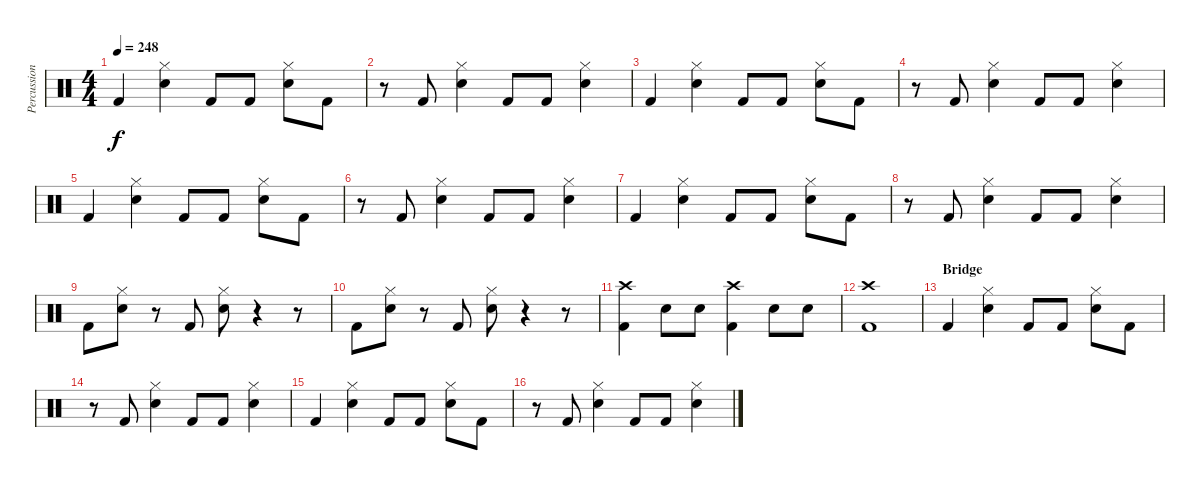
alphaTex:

\track ("Percussion" "Percussion") {instrument percussion}
\staff {score}
\articulation defaults
\ts (4 4)
\tempo 248
\clef neutral
\ks c "Kick (hit) 2".4{dy f}
("Hi-Hat (closed)" "Snare (hit) 2").4 "Kick (hit) 2".8 "Kick (hit) 2".8 ("Hi-Hat (closed)" "Snare (hit) 2").8 "Kick (hit) 2".8 |
r.8 "Kick (hit) 2".8 ("Hi-Hat (closed)" "Snare (hit) 2").4 "Kick (hit) 2".8 "Kick (hit) 2".8 ("Hi-Hat (closed)" "Snare (hit) 2").4 |
"Kick (hit) 2".4 ("Hi-Hat (closed)" "Snare (hit) 2").4 "Kick (hit) 2".8 "Kick (hit) 2".8 ("Hi-Hat (closed)" "Snare (hit) 2").8 "Kick (hit) 2".8 |
r.8 "Kick (hit) 2".8 ("Hi-Hat (closed)" "Snare (hit) 2").4 "Kick (hit) 2".8 "Kick (hit) 2".8 ("Hi-Hat (closed)" "Snare (hit) 2").4 |
"Kick (hit) 2".4 ("Hi-Hat (closed)" "Snare (hit) 2").4 "Kick (hit) 2".8 "Kick (hit) 2".8 ("Hi-Hat (closed)" "Snare (hit) 2").8 "Kick (hit) 2".8 |
r.8 "Kick (hit) 2".8 ("Hi-Hat (closed)" "Snare (hit) 2").4 "Kick (hit) 2".8 "Kick (hit) 2".8 ("Hi-Hat (closed)" "Snare (hit) 2").4 |
"Kick (hit) 2".4 ("Hi-Hat (closed)" "Snare (hit) 2").4 "Kick (hit) 2".8 "Kick (hit) 2".8 ("Hi-Hat (closed)" "Snare (hit) 2").8 "Kick (hit) 2".8 |
r.8 "Kick (hit) 2".8 ("Hi-Hat (closed)" "Snare (hit) 2").4 "Kick (hit) 2".8 "Kick (hit) 2".8 ("Hi-Hat (closed)" "Snare (hit) 2").4 |
"Kick (hit) 2".8 ("Hi-Hat (closed)" "Snare (hit) 2").8 r.8 "Kick (hit) 2".8 ("Hi-Hat (closed)" "Snare (hit) 2").8 r.4 r.8 |
"Kick (hit) 2".8 ("Hi-Hat (closed)" "Snare (hit) 2").8 r.8 "Kick (hit) 2".8 ("Hi-Hat (closed)" "Snare (hit) 2").8 r.4 r.8 |
("Crash high (hit)" "Kick (hit) 2").4 "Snare (hit) 2".8 "Snare (hit) 2".8 ("Crash high (hit)" "Kick (hit) 2").4 "Snare (hit) 2".8 "Snare (hit) 2".8 |
("Crash high (hit)" "Kick (hit) 2").1 |
\section ("" "Bridge")
"Kick (hit) 2".4 ("Hi-Hat (closed)" "Snare (hit) 2").4 "Kick (hit) 2".8 "Kick (hit) 2".8 ("Hi-Hat (closed)" "Snare (hit) 2").8 "Kick (hit) 2".8 |
r.8 "Kick (hit) 2".8 ("Hi-Hat (closed)" "Snare (hit) 2").4 "Kick (hit) 2".8 "Kick (hit) 2".8 ("Hi-Hat (closed)" "Snare (hit) 2").4 |
"Kick (hit) 2".4 ("Hi-Hat (closed)" "Snare (hit) 2").4 "Kick (hit) 2".8 "Kick (hit) 2".8 ("Hi-Hat (closed)" "Snare (hit) 2").8 "Kick (hit) 2".8 |
r.8 "Kick (hit) 2".8 ("Hi-Hat (closed)" "Snare (hit) 2").4 "Kick (hit) 2".8 "Kick (hit) 2".8 ("Hi-Hat (closed)" "Snare (hit) 2").4
